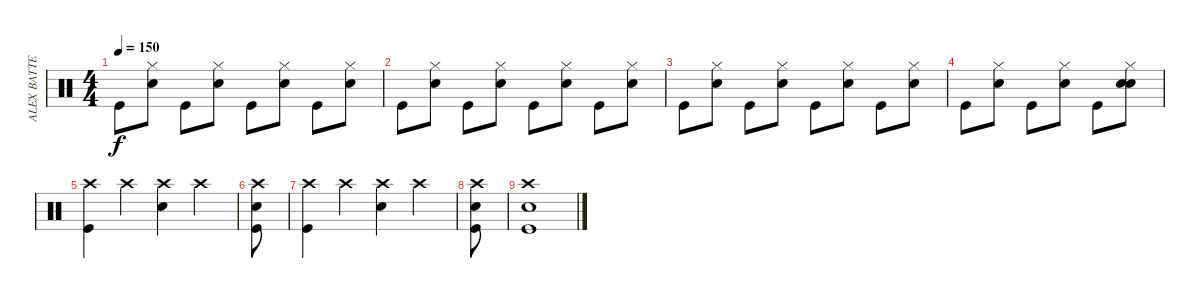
\track ("ALEX BATTERIE" "ALEX BATTE") {instrument percussion}
\staff {score}
\articulation defaults
\ts (4 4)
\tempo 150
\clef neutral
\ks c "Kick (hit)".8{dy f}
("Hi-Hat (closed)" "Electric Snare (hit)").8 "Kick (hit)".8 ("Hi-Hat (closed)" "Electric Snare (hit)").8 "Kick (hit)".8 ("Hi-Hat (closed)" "Electric Snare (hit)").8 "Kick (hit)".8 ("Hi-Hat (closed)" "Electric Snare (hit)").8 |
"Kick (hit)".8 ("Hi-Hat (closed)" "Electric Snare (hit)").8 "Kick (hit)".8 ("Hi-Hat (closed)" "Electric Snare (hit)").8 "Kick (hit)".8 ("Hi-Hat (closed)" "Electric Snare (hit)").8 "Kick (hit)".8 ("Hi-Hat (closed)" "Electric Snare (hit)").8 |
"Kick (hit)".8 ("Hi-Hat (closed)" "Electric Snare (hit)").8 "Kick (hit)".8 ("Hi-Hat (closed)" "Electric Snare (hit)").8 "Kick (hit)".8 ("Hi-Hat (closed)" "Electric Snare (hit)").8 "Kick (hit)".8 ("Hi-Hat (closed)" "Electric Snare (hit)").8 |
"Kick (hit)".8 ("Hi-Hat (closed)" "Electric Snare (hit)").8 "Kick (hit)".8 ("Hi-Hat (closed)" "Electric Snare (hit)").8 "Kick (hit)".8 ("Hi-Hat (closed)" "Electric Snare (hit)" "Hand Clap (hit)").8 |
("Crash high (hit)" "Kick (hit)").4 "Crash high (hit)".4 ("Crash high (hit)" "Electric Snare (hit)").4 "Crash high (hit)".4 |
("Crash high (hit)" "Electric Snare (hit)" "Kick (hit)").8 |
("Crash high (hit)" "Kick (hit)").4 "Crash high (hit)".4 ("Crash high (hit)" "Electric Snare (hit)").4 "Crash high (hit)".4 |
("Crash high (hit)" "Electric Snare (hit)" "Kick (hit)").8 |
("Crash high (hit)" "Electric Snare (hit)" "Kick (hit)").1
